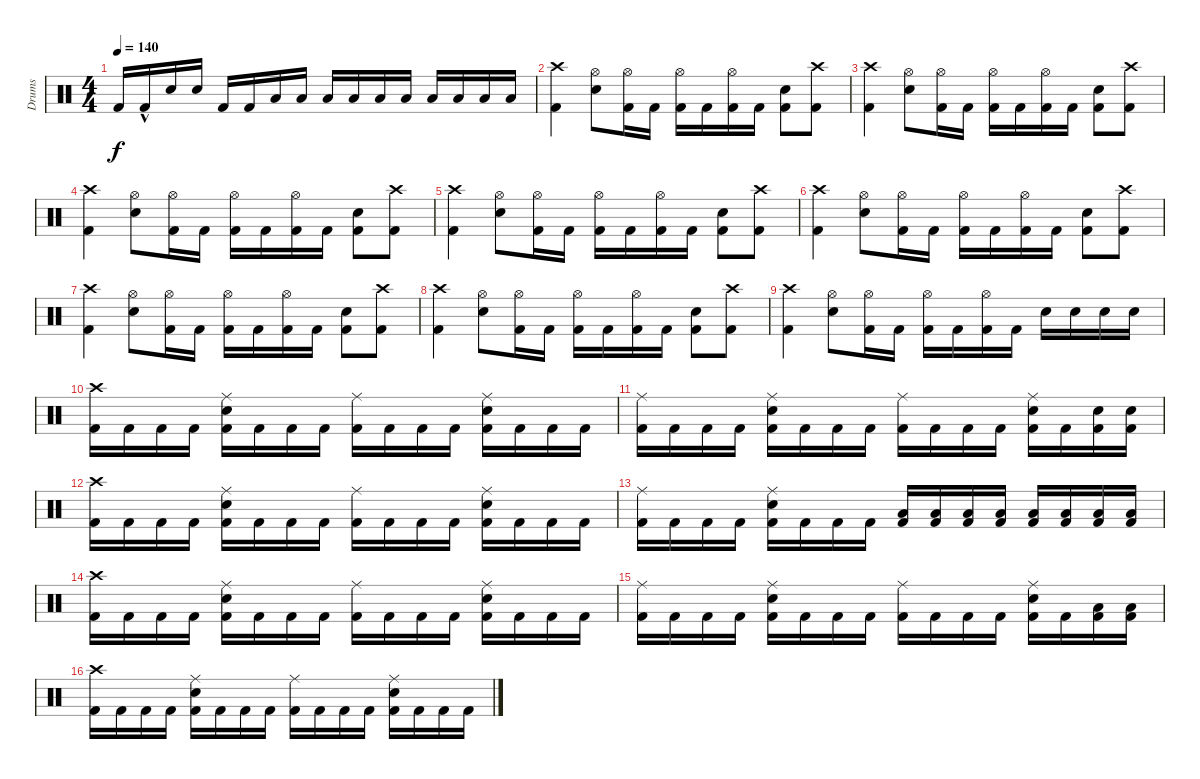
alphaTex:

\track ("Drums" "Drums") {instrument percussion}
\staff {score}
\articulation defaults
\ts (4 4)
\tempo 140
\clef neutral
\ks c "Kick (hit) 2".16{dy f} "Kick (hit) 2"{hac}.16 "Snare (hit) 2".16 "Snare (hit) 2".16 "Kick (hit) 2".16 "Kick (hit) 2".16 "Low Floor Tom (hit)".16 "Low Floor Tom (hit)".16 "Low Floor Tom (hit)".16 "Low Floor Tom (hit)".16 "Low Tom (hit)".16 "Low Tom (hit)".16 "Low Tom (hit)".16 "Low Tom (hit)".16 "Low Tom (hit)".16 "Low Tom (hit)".16
|
("Kick (hit) 2" "Crash high (hit)").4 ("Snare (hit) 2" "Hi-Hat (open)").8 ("Kick (hit) 2" "Hi-Hat (open)").16 "Kick (hit) 2".16 ("Hi-Hat (open)" "Kick (hit) 2").16 "Kick (hit) 2".16 ("Hi-Hat (open)" "Kick (hit) 2").16 "Kick (hit) 2".16 ("Snare (hit) 2" "Kick (hit) 2").8 ("Kick (hit) 2" "Crash high (hit)").8 |
("Kick (hit) 2" "Crash high (hit)").4 ("Snare (hit) 2" "Hi-Hat (open)").8 ("Kick (hit) 2" "Hi-Hat (open)").16 "Kick (hit) 2".16 ("Hi-Hat (open)" "Kick (hit) 2").16 "Kick (hit) 2".16 ("Hi-Hat (open)" "Kick (hit) 2").16 "Kick (hit) 2".16 ("Snare (hit) 2" "Kick (hit) 2").8 ("Kick (hit) 2" "Crash high (hit)").8 |
("Kick (hit) 2" "Crash high (hit)").4 ("Snare (hit) 2" "Hi-Hat (open)").8 ("Kick (hit) 2" "Hi-Hat (open)").16 "Kick (hit) 2".16 ("Hi-Hat (open)" "Kick (hit) 2").16 "Kick (hit) 2".16 ("Hi-Hat (open)" "Kick (hit) 2").16 "Kick (hit) 2".16 ("Snare (hit) 2" "Kick (hit) 2").8 ("Kick (hit) 2" "Crash high (hit)").8 |
("Kick (hit) 2" "Crash high (hit)").4 ("Snare (hit) 2" "Hi-Hat (open)").8 ("Kick (hit) 2" "Hi-Hat (open)").16 "Kick (hit) 2".16 ("Hi-Hat (open)" "Kick (hit) 2").16 "Kick (hit) 2".16 ("Hi-Hat (open)" "Kick (hit) 2").16 "Kick (hit) 2".16 ("Snare (hit) 2" "Kick (hit) 2").8 ("Kick (hit) 2" "Crash high (hit)").8 |
("Kick (hit) 2" "Crash high (hit)").4 ("Snare (hit) 2" "Hi-Hat (open)").8 ("Kick (hit) 2" "Hi-Hat (open)").16 "Kick (hit) 2".16 ("Hi-Hat (open)" "Kick (hit) 2").16 "Kick (hit) 2".16 ("Hi-Hat (open)" "Kick (hit) 2").16 "Kick (hit) 2".16 ("Snare (hit) 2" "Kick (hit) 2").8 ("Kick (hit) 2" "Crash high (hit)").8 |
("Kick (hit) 2" "Crash high (hit)").4 ("Snare (hit) 2" "Hi-Hat (open)").8 ("Kick (hit) 2" "Hi-Hat (open)").16 "Kick (hit) 2".16 ("Hi-Hat (open)" "Kick (hit) 2").16 "Kick (hit) 2".16 ("Hi-Hat (open)" "Kick (hit) 2").16 "Kick (hit) 2".16 ("Snare (hit) 2" "Kick (hit) 2").8 ("Kick (hit) 2" "Crash high (hit)").8 |
("Kick (hit) 2" "Crash high (hit)").4 ("Snare (hit) 2" "Hi-Hat (open)").8 ("Kick (hit) 2" "Hi-Hat (open)").16 "Kick (hit) 2".16 ("Hi-Hat (open)" "Kick (hit) 2").16 "Kick (hit) 2".16 ("Hi-Hat (open)" "Kick (hit) 2").16 "Kick (hit) 2".16 ("Snare (hit) 2" "Kick (hit) 2").8 ("Kick (hit) 2" "Crash high (hit)").8 |
("Kick (hit) 2" "Crash high (hit)").4 ("Snare (hit) 2" "Hi-Hat (open)").8 ("Kick (hit) 2" "Hi-Hat (open)").16 "Kick (hit) 2".16 ("Hi-Hat (open)" "Kick (hit) 2").16 "Kick (hit) 2".16 ("Hi-Hat (open)" "Kick (hit) 2").16 "Kick (hit) 2".16 "Snare (hit) 2".16 "Snare (hit) 2".16 "Snare (hit) 2".16 "Snare (hit) 2".16 |
("Crash high (hit)" "Kick (hit) 2").16 "Kick (hit) 2".16 "Kick (hit) 2".16 "Kick (hit) 2".16 ("Kick (hit) 2" "Ride (middle)" "Snare (hit) 2").16 "Kick (hit) 2".16 "Kick (hit) 2".16 "Kick (hit) 2".16 ("Ride (middle)" "Kick (hit) 2").16 "Kick (hit) 2".16 "Kick (hit) 2".16 "Kick (hit) 2".16 ("Kick (hit) 2" "Ride (middle)" "Snare (hit) 2").16 "Kick (hit) 2".16 "Kick (hit) 2".16 "Kick (hit) 2".16 |
("Ride (middle)" "Kick (hit) 2").16 "Kick (hit) 2".16 "Kick (hit) 2".16 "Kick (hit) 2".16 ("Kick (hit) 2" "Ride (middle)" "Snare (hit) 2").16 "Kick (hit) 2".16 "Kick (hit) 2".16 "Kick (hit) 2".16 ("Ride (middle)" "Kick (hit) 2").16 "Kick (hit) 2".16 "Kick (hit) 2".16 "Kick (hit) 2".16 ("Kick (hit) 2" "Ride (middle)" "Snare (hit) 2").16 "Kick (hit) 2".16 ("Snare (hit) 2" "Kick (hit) 2").16 ("Kick (hit) 2" "Snare (hit) 2").16 |
("Crash high (hit)" "Kick (hit) 2").16 "Kick (hit) 2".16 "Kick (hit) 2".16 "Kick (hit) 2".16 ("Kick (hit) 2" "Ride (middle)" "Snare (hit) 2").16 "Kick (hit) 2".16 "Kick (hit) 2".16 "Kick (hit) 2".16 ("Ride (middle)" "Kick (hit) 2").16 "Kick (hit) 2".16 "Kick (hit) 2".16 "Kick (hit) 2".16 ("Kick (hit) 2" "Ride (middle)" "Snare (hit) 2").16 "Kick (hit) 2".16 "Kick (hit) 2".16 "Kick (hit) 2".16 |
("Ride (middle)" "Kick (hit) 2").16 "Kick (hit) 2".16 "Kick (hit) 2".16 "Kick (hit) 2".16 ("Kick (hit) 2" "Ride (middle)" "Snare (hit) 2").16 "Kick (hit) 2".16 "Kick (hit) 2".16 "Kick (hit) 2".16 ("Low Tom (hit)" "Kick (hit) 2").16 ("Kick (hit) 2" "Low Tom (hit)").16 ("Low Tom (hit)" "Kick (hit) 2").16 ("Low Tom (hit)" "Kick (hit) 2").16 ("Low Tom (hit)" "Kick (hit) 2").16 ("Low Floor Tom (hit)" "Kick (hit) 2").16 ("Low Floor Tom (hit)" "Kick (hit) 2").16 ("Low Floor Tom (hit)" "Kick (hit) 2").16 |
("Crash high (hit)" "Kick (hit) 2").16 "Kick (hit) 2".16 "Kick (hit) 2".16 "Kick (hit) 2".16 ("Kick (hit) 2" "Ride (middle)" "Snare (hit) 2").16 "Kick (hit) 2".16 "Kick (hit) 2".16 "Kick (hit) 2".16 ("Ride (middle)" "Kick (hit) 2").16 "Kick (hit) 2".16 "Kick (hit) 2".16 "Kick (hit) 2".16 ("Kick (hit) 2" "Ride (middle)" "Snare (hit) 2").16 "Kick (hit) 2".16 "Kick (hit) 2".16 "Kick (hit) 2".16 |
("Ride (middle)" "Kick (hit) 2").16 "Kick (hit) 2".16 "Kick (hit) 2".16 "Kick (hit) 2".16 ("Kick (hit) 2" "Ride (middle)" "Snare (hit) 2").16 "Kick (hit) 2".16 "Kick (hit) 2".16 "Kick (hit) 2".16 ("Ride (middle)" "Kick (hit) 2").16 "Kick (hit) 2".16 "Kick (hit) 2".16 "Kick (hit) 2".16 ("Kick (hit) 2" "Ride (middle)" "Snare (hit) 2").16 "Kick (hit) 2".16 ("Low Floor Tom (hit)" "Kick (hit) 2").16 ("Kick (hit) 2" "Low Floor Tom (hit)").16 |
("Crash high (hit)" "Kick (hit) 2").16 "Kick (hit) 2".16 "Kick (hit) 2".16 "Kick (hit) 2".16 ("Kick (hit) 2" "Ride (middle)" "Snare (hit) 2").16 "Kick (hit) 2".16 "Kick (hit) 2".16 "Kick (hit) 2".16 ("Ride (middle)" "Kick (hit) 2").16 "Kick (hit) 2".16 "Kick (hit) 2".16 "Kick (hit) 2".16 ("Kick (hit) 2" "Ride (middle)" "Snare (hit) 2").16 "Kick (hit) 2".16 "Kick (hit) 2".16 "Kick (hit) 2".16
